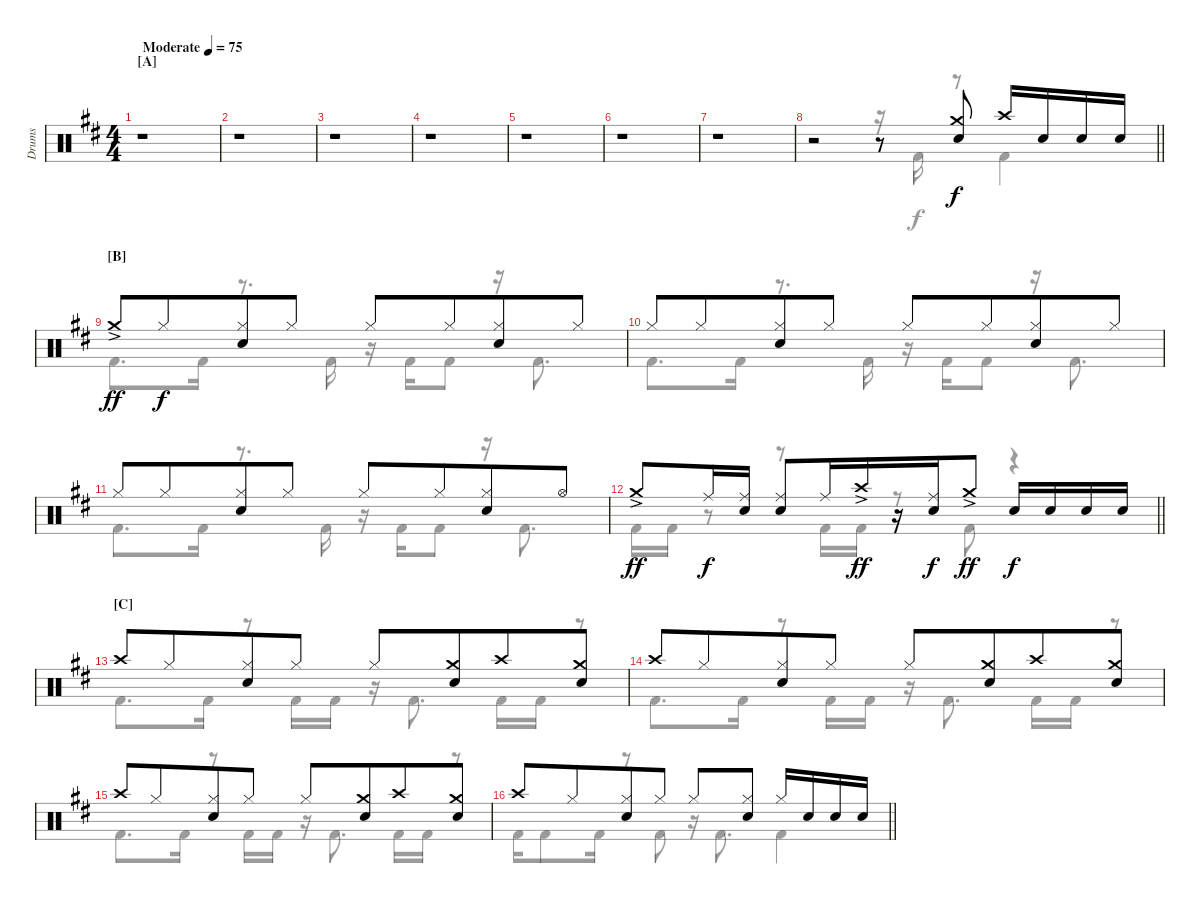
\track ("Drums" "Drums") {instrument percussion}
\staff {score}
\articulation defaults
\voice
\ts (4 4)
\section ("" "[A]")
\tempo (75 "Moderate")
\clef neutral
\ks d
r.1{dy f} |
\ks bminor
r.1 |
r.1 |
r.1 |
\ks d
r.1 |
\ks bminor
r.1 |
r.1 |
\barLineRight lightlight
r.2 r.8 ("Crash medium (hit)" "Snare (hit) 2").8 "Crash high (hit)".16 "Snare (hit) 2".16 "Snare (hit) 2".16 "Snare (hit) 2".16 |
\section ("" "[B]")
"Crash medium (hit)"{ac}.8{dy ff} "Hi-Hat (closed)".8{dy f beam merge} ("Hi-Hat (closed)" "Snare (hit) 2").8 "Hi-Hat (closed)".8 "Hi-Hat (closed)".8 "Hi-Hat (closed)".8{beam merge} ("Hi-Hat (closed)" "Snare (hit) 2").8 "Hi-Hat (closed)".8 |
"Hi-Hat (closed)".8 "Hi-Hat (closed)".8{beam merge} ("Hi-Hat (closed)" "Snare (hit) 2").8 "Hi-Hat (closed)".8 "Hi-Hat (closed)".8 "Hi-Hat (closed)".8{beam merge} ("Hi-Hat (closed)" "Snare (hit) 2").8 "Hi-Hat (closed)".8 |
"Hi-Hat (closed)".8 "Hi-Hat (closed)".8{beam merge} ("Hi-Hat (closed)" "Snare (hit) 2").8 "Hi-Hat (closed)".8 "Hi-Hat (closed)".8 "Hi-Hat (closed)".8{beam merge} ("Hi-Hat (closed)" "Snare (hit) 2").8 "Hi-Hat (open)".8 |
\barLineRight lightlight "Crash medium (hit)"{ac}.8{dy ff beam merge} "Ride (middle)".16{dy f}
("Ride (middle)" "Snare (hit) 2").16 ("Ride (middle)" "Snare (hit) 2").8{beam merge} "Ride (middle)".16 "Crash high (hit)"{ac}.16{dy ff beam merge} r.16 ("Ride (middle)" "Snare (hit) 2").16{dy f} "Crash medium (hit)"{ac}.8{dy ff} "Snare (hit) 2".16{dy f} "Snare (hit) 2".16 "Snare (hit) 2".16 "Snare (hit) 2".16 |
\section ("" "[C]")
\ks d "Crash high (hit)".8 "Hi-Hat (closed)".8{beam merge}
("Hi-Hat (closed)" "Snare (hit) 2").8 "Hi-Hat (closed)".8 "Hi-Hat (closed)".8 ("Crash medium (hit)" "Snare (hit) 2").8{beam merge} "Crash high (hit)".8 ("Crash medium (hit)" "Snare (hit) 2").8 |
\ks bminor "Crash high (hit)".8 "Hi-Hat (closed)".8{beam merge}
("Hi-Hat (closed)" "Snare (hit) 2").8 "Hi-Hat (closed)".8 "Hi-Hat (closed)".8 ("Crash medium (hit)" "Snare (hit) 2").8{beam merge} "Crash high (hit)".8 ("Crash medium (hit)" "Snare (hit) 2").8 |
"Crash high (hit)".8 "Hi-Hat (closed)".8{beam merge} ("Hi-Hat (closed)" "Snare (hit) 2").8 "Hi-Hat (closed)".8 "Hi-Hat (closed)".8 ("Crash medium (hit)" "Snare (hit) 2").8{beam merge} "Crash high (hit)".8 ("Crash medium (hit)" "Snare (hit) 2").8 |
\barLineRight lightlight "Crash high (hit)".8 "Hi-Hat (closed)".8{beam merge}
("Hi-Hat (closed)" "Snare (hit) 2").8 "Hi-Hat (closed)".8 "Hi-Hat (closed)".8 ("Hi-Hat (closed)" "Snare (hit) 2").8 "Hi-Hat (closed)".16 "Snare (hit) 2".16 "Snare (hit) 2".16 "Snare (hit) 2".16
\voice
\clef neutral
\ottava regular
\simile none
\ks d
r.1{dy f} |
\ks bminor
r.1 |
r.1 |
r.1 |
\ks d
r.1 |
\ks bminor
r.1 |
r.1 |
\barLineRight lightlight
r.2 r.16 "Kick (hit) 2".16 r.8 "Kick (hit) 2".4 |
"Kick (hit) 2".8{d} "Kick (hit) 2".16 r.8{d} "Kick (hit) 2".16 r.16 "Kick (hit) 2".16 "Kick (hit) 2".8 r.16 "Kick (hit) 2".8{d} |
"Kick (hit) 2".8{d} "Kick (hit) 2".16 r.8{d} "Kick (hit) 2".16 r.16 "Kick (hit) 2".16 "Kick (hit) 2".8 r.16 "Kick (hit) 2".8{d} |
"Kick (hit) 2".8{d} "Kick (hit) 2".16 r.8{d} "Kick (hit) 2".16 r.16 "Kick (hit) 2".16 "Kick (hit) 2".8 r.16 "Kick (hit) 2".8{d} |
\barLineRight lightlight "Kick (hit) 2".16 "Kick (hit) 2".16
r.8 r.8{beam merge} "Kick (hit) 2".16 "Kick (hit) 2".16 r.8 "Kick (hit) 2".8 r.4 |
\ks d "Kick (hit) 2".8{d} "Kick (hit) 2".16
r.8 "Kick (hit) 2".16 "Kick (hit) 2".16 r.16 "Kick (hit) 2".8{d} "Kick (hit) 2".16 "Kick (hit) 2".16 r.8 |
\ks bminor "Kick (hit) 2".8{d} "Kick (hit) 2".16
r.8 "Kick (hit) 2".16 "Kick (hit) 2".16 r.16 "Kick (hit) 2".8{d} "Kick (hit) 2".16 "Kick (hit) 2".16 r.8 |
"Kick (hit) 2".8{d} "Kick (hit) 2".16 r.8 "Kick (hit) 2".16 "Kick (hit) 2".16 r.16 "Kick (hit) 2".8{d} "Kick (hit) 2".16 "Kick (hit) 2".16 r.8 |
\barLineRight lightlight "Kick (hit) 2".16 "Kick (hit) 2".8 "Kick (hit) 2".16
r.8 "Kick (hit) 2".8 r.16 "Kick (hit) 2".8{d} "Kick (hit) 2".4
